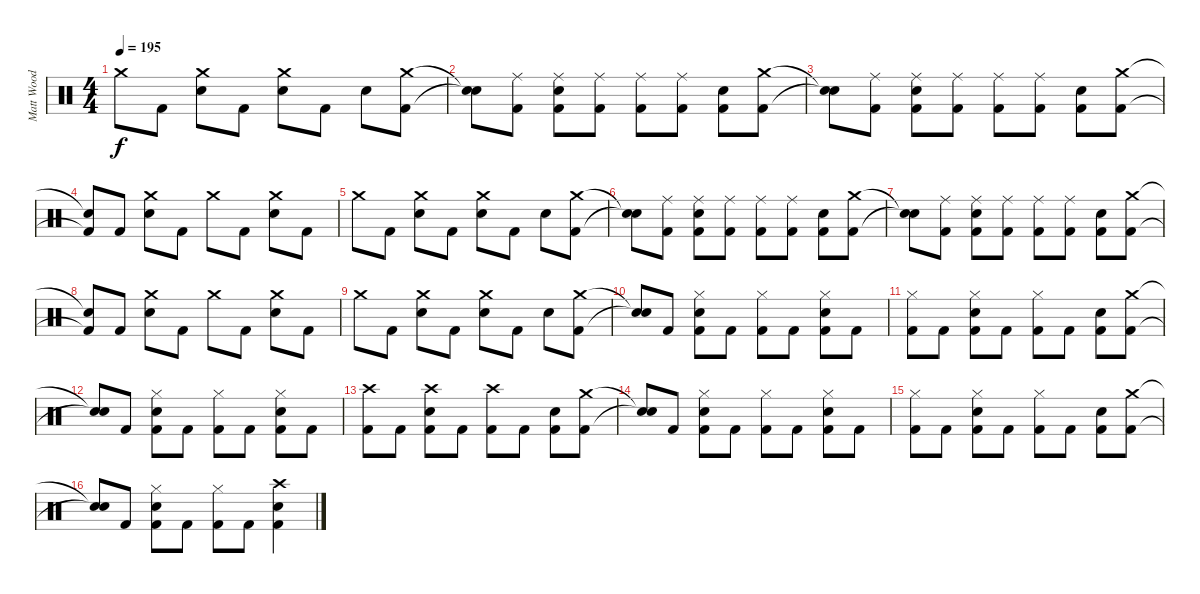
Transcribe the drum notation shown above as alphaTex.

\track ("Matt Wood" "Matt Wood") {instrument percussion}
\staff {score}
\articulation defaults
\ts (4 4)
\tempo 195
\clef neutral
\ks c "Crash medium (hit)".8{dy f} "Kick (hit) 2".8
("Crash medium (hit)" "Snare (hit) 2").8 "Kick (hit) 2".8 ("Crash medium (hit)" "Snare (hit) 2").8 "Kick (hit) 2".8 "Snare (hit) 2".8 ("Crash medium (hit)" "Kick (hit) 2").8 |
("Snare (hit)"{t} "Snare (hit)"{t}).8 ("Ride (middle)" "Kick (hit) 2").8 ("Ride (middle)" "Snare (hit) 2" "Kick (hit) 2").8 ("Ride (middle)" "Kick (hit) 2").8 ("Ride (middle)" "Kick (hit) 2").8 ("Ride (middle)" "Kick (hit) 2").8 ("Snare (hit) 2" "Kick (hit) 2").8 ("Crash medium (hit)" "Kick (hit) 2").8 |
("Snare (hit)"{t} "Snare (hit)"{t}).8 ("Ride (middle)" "Kick (hit) 2").8 ("Ride (middle)" "Snare (hit) 2" "Kick (hit) 2").8 ("Ride (middle)" "Kick (hit) 2").8 ("Ride (middle)" "Kick (hit) 2").8 ("Ride (middle)" "Kick (hit) 2").8 ("Snare (hit) 2" "Kick (hit) 2").8 ("Crash medium (hit)" "Kick (hit) 2").8 |
("Snare (hit)"{t} "Kick (hit) 2"{t}).8 "Kick (hit) 2".8 ("Crash medium (hit)" "Snare (hit) 2").8 "Kick (hit) 2".8 "Crash medium (hit)".8 "Kick (hit) 2".8 ("Crash medium (hit)" "Snare (hit) 2").8 "Kick (hit) 2".8 |
"Crash medium (hit)".8 "Kick (hit) 2".8 ("Crash medium (hit)" "Snare (hit) 2").8 "Kick (hit) 2".8 ("Crash medium (hit)" "Snare (hit) 2").8 "Kick (hit) 2".8 "Snare (hit) 2".8 ("Crash medium (hit)" "Kick (hit) 2").8 |
("Snare (hit)"{t} "Snare (hit)"{t}).8 ("Ride (middle)" "Kick (hit) 2").8 ("Ride (middle)" "Snare (hit) 2" "Kick (hit) 2").8 ("Ride (middle)" "Kick (hit) 2").8 ("Ride (middle)" "Kick (hit) 2").8 ("Ride (middle)" "Kick (hit) 2").8 ("Snare (hit) 2" "Kick (hit) 2").8 ("Crash medium (hit)" "Kick (hit) 2").8 |
("Snare (hit)"{t} "Snare (hit)"{t}).8 ("Ride (middle)" "Kick (hit) 2").8 ("Ride (middle)" "Snare (hit) 2" "Kick (hit) 2").8 ("Ride (middle)" "Kick (hit) 2").8 ("Ride (middle)" "Kick (hit) 2").8 ("Ride (middle)" "Kick (hit) 2").8 ("Snare (hit) 2" "Kick (hit) 2").8 ("Crash medium (hit)" "Kick (hit) 2").8 |
("Snare (hit)"{t} "Kick (hit) 2"{t}).8 "Kick (hit) 2".8 ("Crash medium (hit)" "Snare (hit) 2").8 "Kick (hit) 2".8 "Crash medium (hit)".8 "Kick (hit) 2".8 ("Crash medium (hit)" "Snare (hit) 2").8 "Kick (hit) 2".8 |
"Crash medium (hit)".8 "Kick (hit) 2".8 ("Crash medium (hit)" "Snare (hit) 2").8 "Kick (hit) 2".8 ("Crash medium (hit)" "Snare (hit) 2").8 "Kick (hit) 2".8 "Snare (hit) 2".8 ("Crash medium (hit)" "Kick (hit) 2").8 |
("Snare (hit)"{t} "Snare (hit)"{t}).8 "Kick (hit) 2".8 ("Hi-Hat (closed)" "Snare (hit) 2" "Kick (hit) 2").8 "Kick (hit) 2".8 ("Hi-Hat (closed)" "Kick (hit) 2").8 "Kick (hit) 2".8 ("Hi-Hat (closed)" "Snare (hit) 2" "Kick (hit) 2").8 "Kick (hit) 2".8 |
("Hi-Hat (closed)" "Kick (hit) 2").8 "Kick (hit) 2".8 ("Hi-Hat (closed)" "Snare (hit) 2" "Kick (hit) 2").8 "Kick (hit) 2".8 ("Hi-Hat (closed)" "Kick (hit) 2").8 "Kick (hit) 2".8 ("Snare (hit) 2" "Kick (hit) 2").8 ("Crash medium (hit)" "Kick (hit) 2").8 |
("Snare (hit)"{t} "Snare (hit)"{t}).8 "Kick (hit) 2".8 ("Hi-Hat (closed)" "Snare (hit) 2" "Kick (hit) 2").8 "Kick (hit) 2".8 ("Hi-Hat (closed)" "Kick (hit) 2").8 "Kick (hit) 2".8 ("Hi-Hat (closed)" "Snare (hit) 2" "Kick (hit) 2").8 "Kick (hit) 2".8 |
("Crash high (hit)" "Kick (hit) 2").8 "Kick (hit) 2".8 ("Crash high (hit)" "Snare (hit) 2" "Kick (hit) 2").8 "Kick (hit) 2".8 ("Crash high (hit)" "Kick (hit) 2").8 "Kick (hit) 2".8 ("Snare (hit) 2" "Kick (hit) 2").8 ("Crash medium (hit)" "Kick (hit) 2").8 |
("Snare (hit)"{t} "Snare (hit)"{t}).8 "Kick (hit) 2".8 ("Hi-Hat (closed)" "Snare (hit) 2" "Kick (hit) 2").8 "Kick (hit) 2".8 ("Hi-Hat (closed)" "Kick (hit) 2").8 "Kick (hit) 2".8 ("Hi-Hat (closed)" "Snare (hit) 2" "Kick (hit) 2").8 "Kick (hit) 2".8 |
("Hi-Hat (closed)" "Kick (hit) 2").8 "Kick (hit) 2".8 ("Hi-Hat (closed)" "Snare (hit) 2" "Kick (hit) 2").8 "Kick (hit) 2".8 ("Hi-Hat (closed)" "Kick (hit) 2").8 "Kick (hit) 2".8 ("Snare (hit) 2" "Kick (hit) 2").8 ("Crash medium (hit)" "Kick (hit) 2").8 |
("Snare (hit)"{t} "Snare (hit)"{t}).8 "Kick (hit) 2".8 ("Hi-Hat (closed)" "Snare (hit) 2" "Kick (hit) 2").8 "Kick (hit) 2".8 ("Hi-Hat (closed)" "Kick (hit) 2").8 "Kick (hit) 2".8 ("Crash high (hit)" "Snare (hit) 2" "Kick (hit) 2").4
